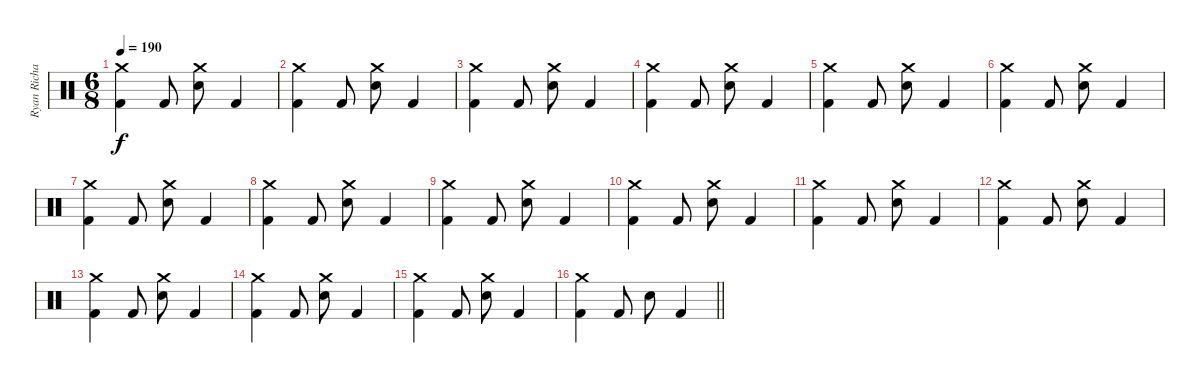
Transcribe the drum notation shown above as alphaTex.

\track ("Ryan Richards" "Ryan Richa") {instrument percussion bank 127}
\staff {score}
\articulation defaults
\ts (6 8)
\section ("" "")
\tempo 190
\clef neutral
\ks c
("Crash medium (hit)" "Kick (hit) 2").4{dy f} "Kick (hit) 2".8 ("Crash medium (hit)" "Snare (hit) 2").8 "Kick (hit) 2".4 |
("Crash medium (hit)" "Kick (hit) 2").4 "Kick (hit) 2".8 ("Crash medium (hit)" "Snare (hit) 2").8 "Kick (hit) 2".4 |
("Crash medium (hit)" "Kick (hit) 2").4 "Kick (hit) 2".8 ("Crash medium (hit)" "Snare (hit) 2").8 "Kick (hit) 2".4 |
("Crash medium (hit)" "Kick (hit) 2").4 "Kick (hit) 2".8 ("Crash medium (hit)" "Snare (hit) 2").8 "Kick (hit) 2".4 |
("Crash medium (hit)" "Kick (hit) 2").4 "Kick (hit) 2".8 ("Crash medium (hit)" "Snare (hit) 2").8 "Kick (hit) 2".4 |
("Crash medium (hit)" "Kick (hit) 2").4 "Kick (hit) 2".8 ("Crash medium (hit)" "Snare (hit) 2").8 "Kick (hit) 2".4 |
("Crash medium (hit)" "Kick (hit) 2").4 "Kick (hit) 2".8 ("Crash medium (hit)" "Snare (hit) 2").8 "Kick (hit) 2".4 |
("Crash medium (hit)" "Kick (hit) 2").4 "Kick (hit) 2".8 ("Crash medium (hit)" "Snare (hit) 2").8 "Kick (hit) 2".4 |
("Crash medium (hit)" "Kick (hit) 2").4 "Kick (hit) 2".8 ("Crash medium (hit)" "Snare (hit) 2").8 "Kick (hit) 2".4 |
("Crash medium (hit)" "Kick (hit) 2").4 "Kick (hit) 2".8 ("Crash medium (hit)" "Snare (hit) 2").8 "Kick (hit) 2".4 |
("Crash medium (hit)" "Kick (hit) 2").4 "Kick (hit) 2".8 ("Crash medium (hit)" "Snare (hit) 2").8 "Kick (hit) 2".4 |
("Crash medium (hit)" "Kick (hit) 2").4 "Kick (hit) 2".8 ("Crash medium (hit)" "Snare (hit) 2").8 "Kick (hit) 2".4 |
("Crash medium (hit)" "Kick (hit) 2").4 "Kick (hit) 2".8 ("Crash medium (hit)" "Snare (hit) 2").8 "Kick (hit) 2".4 |
("Crash medium (hit)" "Kick (hit) 2").4 "Kick (hit) 2".8 ("Crash medium (hit)" "Snare (hit) 2").8 "Kick (hit) 2".4 |
("Crash medium (hit)" "Kick (hit) 2").4 "Kick (hit) 2".8 ("Crash medium (hit)" "Snare (hit) 2").8 "Kick (hit) 2".4 |
\barLineRight lightlight
("Crash medium (hit)" "Kick (hit) 2").4 "Kick (hit) 2".8 "Snare (hit) 2".8 "Kick (hit) 2".4
